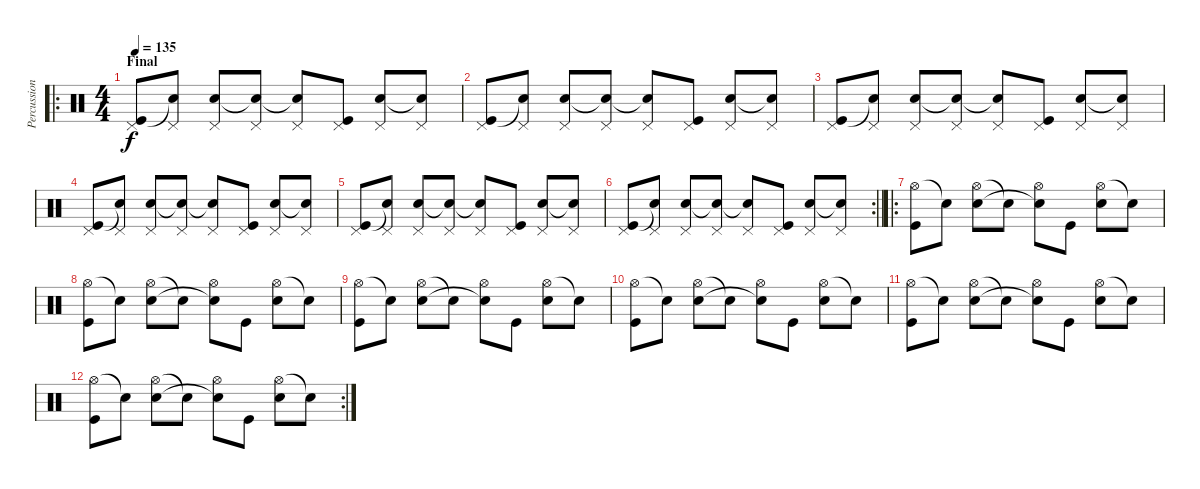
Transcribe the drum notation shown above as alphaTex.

\track ("Percussions" "Percussion") {instrument percussion}
\staff {score}
\articulation defaults
\ro
\ts (4 4)
\section ("" "Final ")
\tempo 135
\clef neutral
\ks c
("Pedal Hi-Hat (hit)" "Kick (hit)").8{dy f} ("Pedal Hi-Hat (hit)" "Snare (hit)"{t}).8 ("Pedal Hi-Hat (hit)" "Electric Snare (hit)").8 ("Pedal Hi-Hat (hit)" "Snare (hit)"{t}).8 ("Pedal Hi-Hat (hit)" "Snare (hit)"{t}).8 ("Pedal Hi-Hat (hit)" "Kick (hit)").8 ("Pedal Hi-Hat (hit)" "Electric Snare (hit)").8 ("Pedal Hi-Hat (hit)" "Snare (hit)"{t}).8 |
("Pedal Hi-Hat (hit)" "Kick (hit)").8 ("Pedal Hi-Hat (hit)" "Snare (hit)"{t}).8 ("Pedal Hi-Hat (hit)" "Electric Snare (hit)").8 ("Pedal Hi-Hat (hit)" "Snare (hit)"{t}).8 ("Pedal Hi-Hat (hit)" "Snare (hit)"{t}).8 ("Pedal Hi-Hat (hit)" "Kick (hit)").8 ("Pedal Hi-Hat (hit)" "Electric Snare (hit)").8 ("Pedal Hi-Hat (hit)" "Snare (hit)"{t}).8 |
("Pedal Hi-Hat (hit)" "Kick (hit)").8 ("Pedal Hi-Hat (hit)" "Snare (hit)"{t}).8 ("Pedal Hi-Hat (hit)" "Electric Snare (hit)").8 ("Pedal Hi-Hat (hit)" "Snare (hit)"{t}).8 ("Pedal Hi-Hat (hit)" "Snare (hit)"{t}).8 ("Pedal Hi-Hat (hit)" "Kick (hit)").8 ("Pedal Hi-Hat (hit)" "Electric Snare (hit)").8 ("Pedal Hi-Hat (hit)" "Snare (hit)"{t}).8 |
("Pedal Hi-Hat (hit)" "Kick (hit)").8 ("Pedal Hi-Hat (hit)" "Snare (hit)"{t}).8 ("Pedal Hi-Hat (hit)" "Electric Snare (hit)").8 ("Pedal Hi-Hat (hit)" "Snare (hit)"{t}).8 ("Pedal Hi-Hat (hit)" "Snare (hit)"{t}).8 ("Pedal Hi-Hat (hit)" "Kick (hit)").8 ("Pedal Hi-Hat (hit)" "Electric Snare (hit)").8 ("Pedal Hi-Hat (hit)" "Snare (hit)"{t}).8 |
("Pedal Hi-Hat (hit)" "Kick (hit)").8 ("Pedal Hi-Hat (hit)" "Snare (hit)"{t}).8 ("Pedal Hi-Hat (hit)" "Electric Snare (hit)").8 ("Pedal Hi-Hat (hit)" "Snare (hit)"{t}).8 ("Pedal Hi-Hat (hit)" "Snare (hit)"{t}).8 ("Pedal Hi-Hat (hit)" "Kick (hit)").8 ("Pedal Hi-Hat (hit)" "Electric Snare (hit)").8 ("Pedal Hi-Hat (hit)" "Snare (hit)"{t}).8 |
\rc 2
\barLineRight lightlight
("Pedal Hi-Hat (hit)" "Kick (hit)").8 ("Pedal Hi-Hat (hit)" "Snare (hit)"{t}).8 ("Pedal Hi-Hat (hit)" "Electric Snare (hit)").8 ("Pedal Hi-Hat (hit)" "Snare (hit)"{t}).8 ("Pedal Hi-Hat (hit)" "Snare (hit)"{t}).8 ("Pedal Hi-Hat (hit)" "Kick (hit)").8 ("Pedal Hi-Hat (hit)" "Electric Snare (hit)").8 ("Pedal Hi-Hat (hit)" "Snare (hit)"{t}).8 |
\ro
("Hi-Hat (open)" "Kick (hit)").8 "Snare (hit)"{t}.8 ("Hi-Hat (open)" "Electric Snare (hit)").8 "Snare (hit)"{t}.8 ("Hi-Hat (open)" "Snare (hit)"{t}).8 "Kick (hit)".8 ("Hi-Hat (open)" "Electric Snare (hit)").8 "Snare (hit)"{t}.8 |
("Hi-Hat (open)" "Kick (hit)").8 "Snare (hit)"{t}.8 ("Hi-Hat (open)" "Electric Snare (hit)").8 "Snare (hit)"{t}.8 ("Hi-Hat (open)" "Snare (hit)"{t}).8 "Kick (hit)".8 ("Hi-Hat (open)" "Electric Snare (hit)").8 "Snare (hit)"{t}.8 |
("Hi-Hat (open)" "Kick (hit)").8 "Snare (hit)"{t}.8 ("Hi-Hat (open)" "Electric Snare (hit)").8 "Snare (hit)"{t}.8 ("Hi-Hat (open)" "Snare (hit)"{t}).8 "Kick (hit)".8 ("Hi-Hat (open)" "Electric Snare (hit)").8 "Snare (hit)"{t}.8 |
("Hi-Hat (open)" "Kick (hit)").8 "Snare (hit)"{t}.8 ("Hi-Hat (open)" "Electric Snare (hit)").8 "Snare (hit)"{t}.8 ("Hi-Hat (open)" "Snare (hit)"{t}).8 "Kick (hit)".8 ("Hi-Hat (open)" "Electric Snare (hit)").8 "Snare (hit)"{t}.8 |
("Hi-Hat (open)" "Kick (hit)").8 "Snare (hit)"{t}.8 ("Hi-Hat (open)" "Electric Snare (hit)").8 "Snare (hit)"{t}.8 ("Hi-Hat (open)" "Snare (hit)"{t}).8 "Kick (hit)".8 ("Hi-Hat (open)" "Electric Snare (hit)").8 "Snare (hit)"{t}.8 |
\rc 2
("Hi-Hat (open)" "Kick (hit)").8 "Snare (hit)"{t}.8 ("Hi-Hat (open)" "Electric Snare (hit)").8 "Snare (hit)"{t}.8 ("Hi-Hat (open)" "Snare (hit)"{t}).8 "Kick (hit)".8 ("Hi-Hat (open)" "Electric Snare (hit)").8 "Snare (hit)"{t}.8
